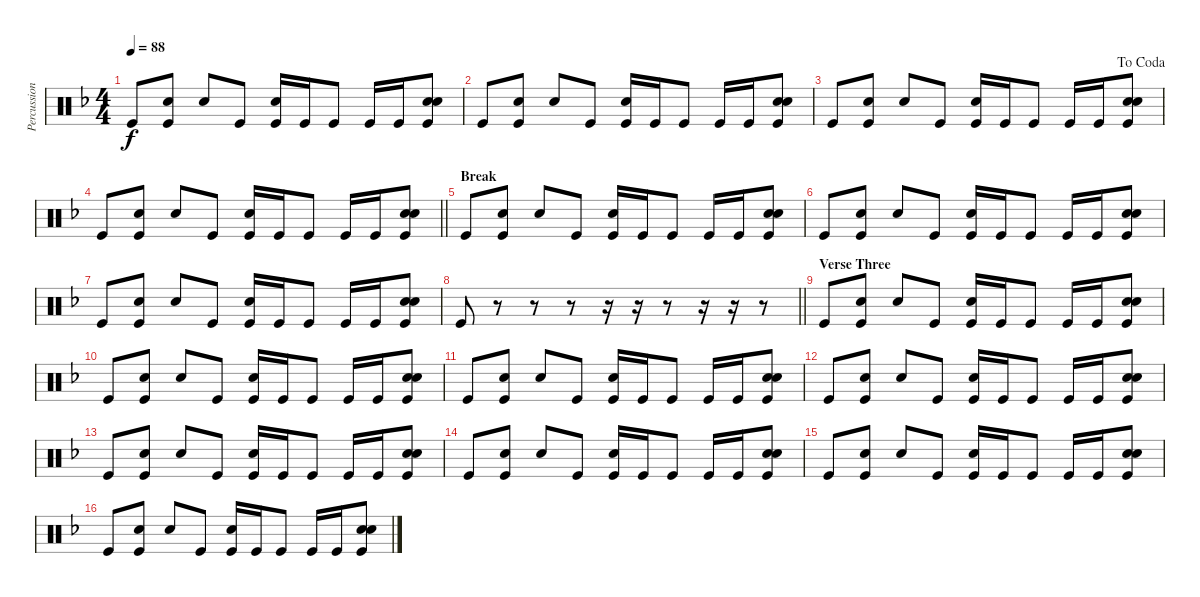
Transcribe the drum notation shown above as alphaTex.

\track ("Percussion" "Percussion") {instrument percussion}
\staff {score}
\articulation defaults
\ts (4 4)
\tempo 88
\clef neutral
\ks f "Kick (hit)".8{dy f}
("Snare (hit)" "Kick (hit)").8 "Electric Snare (hit)".8 "Kick (hit)".8 ("Snare (hit)" "Kick (hit)").16 "Kick (hit)".16 "Kick (hit)".8 "Kick (hit)".16 "Kick (hit)".16 ("Snare (hit)" "Electric Snare (hit)" "Kick (hit)").8 |
"Kick (hit)".8 ("Snare (hit)" "Kick (hit)").8 "Electric Snare (hit)".8 "Kick (hit)".8 ("Snare (hit)" "Kick (hit)").16 "Kick (hit)".16 "Kick (hit)".8 "Kick (hit)".16 "Kick (hit)".16 ("Snare (hit)" "Electric Snare (hit)" "Kick (hit)").8 |
\jump dacoda "Kick (hit)".8
("Snare (hit)" "Kick (hit)").8 "Electric Snare (hit)".8 "Kick (hit)".8 ("Snare (hit)" "Kick (hit)").16 "Kick (hit)".16 "Kick (hit)".8 "Kick (hit)".16 "Kick (hit)".16 ("Snare (hit)" "Electric Snare (hit)" "Kick (hit)").8 |
\barLineRight lightlight "Kick (hit)".8
("Snare (hit)" "Kick (hit)").8 "Electric Snare (hit)".8 "Kick (hit)".8 ("Snare (hit)" "Kick (hit)").16 "Kick (hit)".16 "Kick (hit)".8 "Kick (hit)".16 "Kick (hit)".16 ("Snare (hit)" "Electric Snare (hit)" "Kick (hit)").8 |
\section ("" "Break")
"Kick (hit)".8 ("Snare (hit)" "Kick (hit)").8 "Electric Snare (hit)".8 "Kick (hit)".8 ("Snare (hit)" "Kick (hit)").16 "Kick (hit)".16 "Kick (hit)".8 "Kick (hit)".16 "Kick (hit)".16 ("Snare (hit)" "Electric Snare (hit)" "Kick (hit)").8 |
"Kick (hit)".8 ("Snare (hit)" "Kick (hit)").8 "Electric Snare (hit)".8 "Kick (hit)".8 ("Snare (hit)" "Kick (hit)").16 "Kick (hit)".16 "Kick (hit)".8 "Kick (hit)".16 "Kick (hit)".16 ("Snare (hit)" "Electric Snare (hit)" "Kick (hit)").8 |
"Kick (hit)".8 ("Snare (hit)" "Kick (hit)").8 "Electric Snare (hit)".8 "Kick (hit)".8 ("Snare (hit)" "Kick (hit)").16 "Kick (hit)".16 "Kick (hit)".8 "Kick (hit)".16 "Kick (hit)".16 ("Snare (hit)" "Electric Snare (hit)" "Kick (hit)").8 |
\barLineRight lightlight "Kick (hit)".8
r.8 r.8 r.8 r.16 r.16 r.8 r.16 r.16 r.8 |
\section ("" "Verse Three")
"Kick (hit)".8 ("Snare (hit)" "Kick (hit)").8 "Electric Snare (hit)".8 "Kick (hit)".8 ("Snare (hit)" "Kick (hit)").16 "Kick (hit)".16 "Kick (hit)".8 "Kick (hit)".16 "Kick (hit)".16 ("Snare (hit)" "Electric Snare (hit)" "Kick (hit)").8 |
"Kick (hit)".8 ("Snare (hit)" "Kick (hit)").8 "Electric Snare (hit)".8 "Kick (hit)".8 ("Snare (hit)" "Kick (hit)").16 "Kick (hit)".16 "Kick (hit)".8 "Kick (hit)".16 "Kick (hit)".16 ("Snare (hit)" "Electric Snare (hit)" "Kick (hit)").8 |
"Kick (hit)".8 ("Snare (hit)" "Kick (hit)").8 "Electric Snare (hit)".8 "Kick (hit)".8 ("Snare (hit)" "Kick (hit)").16 "Kick (hit)".16 "Kick (hit)".8 "Kick (hit)".16 "Kick (hit)".16 ("Snare (hit)" "Electric Snare (hit)" "Kick (hit)").8 |
"Kick (hit)".8 ("Snare (hit)" "Kick (hit)").8 "Electric Snare (hit)".8 "Kick (hit)".8 ("Snare (hit)" "Kick (hit)").16 "Kick (hit)".16 "Kick (hit)".8 "Kick (hit)".16 "Kick (hit)".16 ("Snare (hit)" "Electric Snare (hit)" "Kick (hit)").8 |
"Kick (hit)".8 ("Snare (hit)" "Kick (hit)").8 "Electric Snare (hit)".8 "Kick (hit)".8 ("Snare (hit)" "Kick (hit)").16 "Kick (hit)".16 "Kick (hit)".8 "Kick (hit)".16 "Kick (hit)".16 ("Snare (hit)" "Electric Snare (hit)" "Kick (hit)").8 |
"Kick (hit)".8 ("Snare (hit)" "Kick (hit)").8 "Electric Snare (hit)".8 "Kick (hit)".8 ("Snare (hit)" "Kick (hit)").16 "Kick (hit)".16 "Kick (hit)".8 "Kick (hit)".16 "Kick (hit)".16 ("Snare (hit)" "Electric Snare (hit)" "Kick (hit)").8 |
"Kick (hit)".8 ("Snare (hit)" "Kick (hit)").8 "Electric Snare (hit)".8 "Kick (hit)".8 ("Snare (hit)" "Kick (hit)").16 "Kick (hit)".16 "Kick (hit)".8 "Kick (hit)".16 "Kick (hit)".16 ("Snare (hit)" "Electric Snare (hit)" "Kick (hit)").8 |
"Kick (hit)".8 ("Snare (hit)" "Kick (hit)").8 "Electric Snare (hit)".8 "Kick (hit)".8 ("Snare (hit)" "Kick (hit)").16 "Kick (hit)".16 "Kick (hit)".8 "Kick (hit)".16 "Kick (hit)".16 ("Snare (hit)" "Electric Snare (hit)" "Kick (hit)").8
